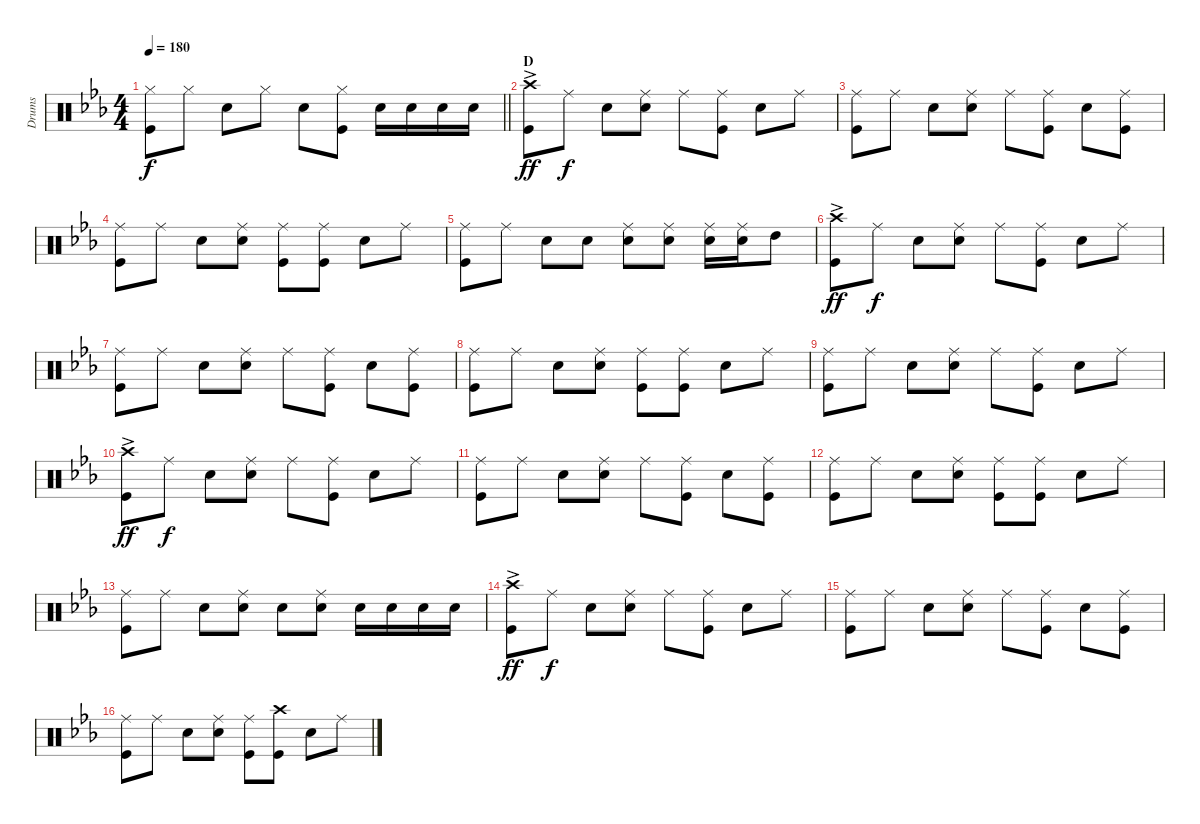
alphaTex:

\track ("Drums" "Drums") {instrument percussion}
\staff {score}
\articulation defaults
\ts (4 4)
\tempo 180
\clef neutral
\barLineRight lightlight
\ks cminor
("Hi-Hat (closed)" "Kick (hit)").8{dy f} "Hi-Hat (closed)".8 "Snare (hit) 2".8 "Hi-Hat (closed)".8 "Snare (hit) 2".8 ("Hi-Hat (closed)" "Kick (hit)").8 "Snare (hit) 2".16 "Snare (hit) 2".16 "Snare (hit) 2".16 "Snare (hit) 2".16 |
\section ("" "D")
("Crash high (hit)"{ac} "Kick (hit)").8{dy ff} "Ride (middle)".8{dy f} "Snare (hit) 2".8 ("Snare (hit) 2" "Ride (middle)").8 "Ride (middle)".8 ("Ride (middle)" "Kick (hit)").8 "Snare (hit) 2".8 "Ride (middle)".8 |
("Ride (middle)" "Kick (hit)").8 "Ride (middle)".8 "Snare (hit) 2".8 ("Snare (hit) 2" "Ride (middle)").8 "Ride (middle)".8 ("Ride (middle)" "Kick (hit)").8 "Snare (hit) 2".8 ("Ride (middle)" "Kick (hit)").8 |
("Kick (hit)" "Ride (middle)").8 "Ride (middle)".8 "Snare (hit) 2".8 ("Snare (hit) 2" "Ride (middle)").8 ("Ride (middle)" "Kick (hit)").8 ("Kick (hit)" "Ride (middle)").8 "Snare (hit) 2".8 "Ride (middle)".8 |
("Ride (middle)" "Kick (hit)").8 "Ride (middle)".8 "Snare (hit) 2".8 "Snare (hit) 2".8 ("Snare (hit) 2" "Ride (middle)").8 ("Ride (middle)" "Snare (hit) 2").8 ("Snare (hit) 2" "Ride (middle)").16 ("Ride (middle)" "Snare (hit) 2").16 "High Tom (hit)".8 |
("Crash high (hit)"{ac} "Kick (hit)").8{dy ff} "Ride (middle)".8{dy f} "Snare (hit) 2".8 ("Snare (hit) 2" "Ride (middle)").8 "Ride (middle)".8 ("Ride (middle)" "Kick (hit)").8 "Snare (hit) 2".8 "Ride (middle)".8 |
("Ride (middle)" "Kick (hit)").8 "Ride (middle)".8 "Snare (hit) 2".8 ("Snare (hit) 2" "Ride (middle)").8 "Ride (middle)".8 ("Ride (middle)" "Kick (hit)").8 "Snare (hit) 2".8 ("Ride (middle)" "Kick (hit)").8 |
("Ride (middle)" "Kick (hit)").8 "Ride (middle)".8 "Snare (hit) 2".8 ("Snare (hit) 2" "Ride (middle)").8 ("Ride (middle)" "Kick (hit)").8 ("Kick (hit)" "Ride (middle)").8 "Snare (hit) 2".8 "Ride (middle)".8 |
("Ride (middle)" "Kick (hit)").8 "Ride (middle)".8 "Snare (hit) 2".8 ("Snare (hit) 2" "Ride (middle)").8 "Ride (middle)".8 ("Ride (middle)" "Kick (hit)").8 "Snare (hit) 2".8 "Ride (middle)".8 |
("Crash high (hit)"{ac} "Kick (hit)").8{dy ff} "Ride (middle)".8{dy f} "Snare (hit) 2".8 ("Snare (hit) 2" "Ride (middle)").8 "Ride (middle)".8 ("Ride (middle)" "Kick (hit)").8 "Snare (hit) 2".8 "Ride (middle)".8 |
("Ride (middle)" "Kick (hit)").8 "Ride (middle)".8 "Snare (hit) 2".8 ("Snare (hit) 2" "Ride (middle)").8 "Ride (middle)".8 ("Ride (middle)" "Kick (hit)").8 "Snare (hit) 2".8 ("Ride (middle)" "Kick (hit)").8 |
("Kick (hit)" "Ride (middle)").8 "Ride (middle)".8 "Snare (hit) 2".8 ("Snare (hit) 2" "Ride (middle)").8 ("Ride (middle)" "Kick (hit)").8 ("Ride (middle)" "Kick (hit)").8 "Snare (hit) 2".8 "Ride (middle)".8 |
("Kick (hit)" "Ride (middle)").8 "Ride (middle)".8 "Snare (hit) 2".8 ("Snare (hit) 2" "Ride (middle)").8 "Snare (hit) 2".8 ("Snare (hit) 2" "Ride (middle)").8 "Snare (hit) 2".16 "Snare (hit) 2".16 "Snare (hit) 2".16 "Snare (hit) 2".16 |
("Crash high (hit)"{ac} "Kick (hit)").8{dy ff} "Ride (middle)".8{dy f} "Snare (hit) 2".8 ("Snare (hit) 2" "Ride (middle)").8 "Ride (middle)".8 ("Ride (middle)" "Kick (hit)").8 "Snare (hit) 2".8 "Ride (middle)".8 |
("Ride (middle)" "Kick (hit)").8 "Ride (middle)".8 "Snare (hit) 2".8 ("Ride (middle)" "Snare (hit) 2").8 "Ride (middle)".8 ("Ride (middle)" "Kick (hit)").8 "Snare (hit) 2".8 ("Ride (middle)" "Kick (hit)").8 |
("Ride (middle)" "Kick (hit)").8 "Ride (middle)".8 "Snare (hit) 2".8 ("Snare (hit) 2" "Ride (middle)").8 ("Ride (middle)" "Kick (hit)").8 ("Kick (hit)" "Crash high (hit)").8 "Snare (hit) 2".8 "Ride (middle)".8
